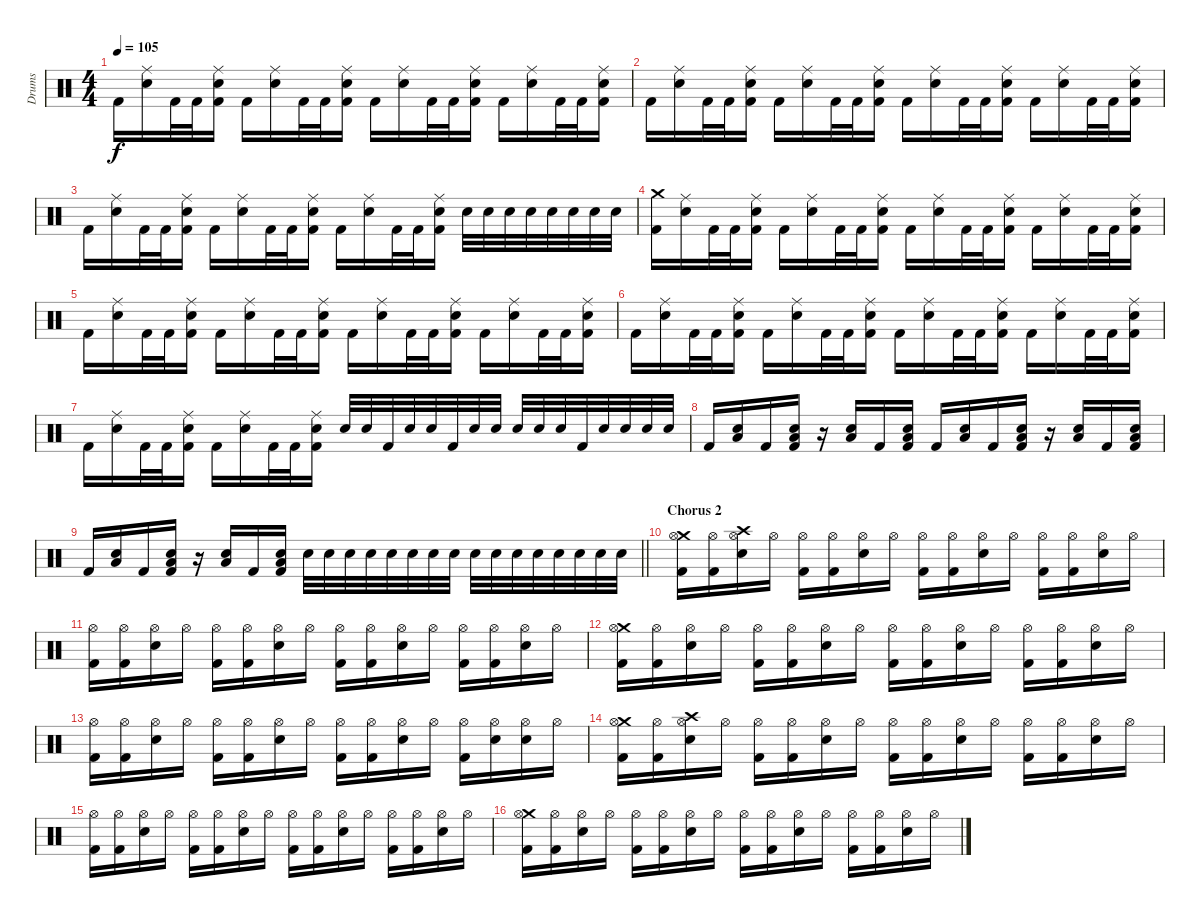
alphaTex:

\track ("Drums" "Drums") {instrument percussion}
\staff {score}
\articulation defaults
\ts (4 4)
\tempo 105
\clef neutral
\ks c "Kick (hit) 2".16{dy f}
("Ride (middle)" "Electric Snare (hit)").16 "Kick (hit) 2".32 "Kick (hit) 2".32 ("Ride (middle)" "Electric Snare (hit)" "Kick (hit) 2").16 "Kick (hit) 2".16 ("Ride (middle)" "Electric Snare (hit)").16 "Kick (hit) 2".32 "Kick (hit) 2".32 ("Ride (middle)" "Electric Snare (hit)" "Kick (hit) 2").16 "Kick (hit) 2".16 ("Ride (middle)" "Electric Snare (hit)").16 "Kick (hit) 2".32 "Kick (hit) 2".32 ("Ride (middle)" "Electric Snare (hit)" "Kick (hit) 2").16 "Kick (hit) 2".16 ("Ride (middle)" "Electric Snare (hit)").16 "Kick (hit) 2".32 "Kick (hit) 2".32 ("Ride (middle)" "Electric Snare (hit)" "Kick (hit) 2").16 |
"Kick (hit) 2".16 ("Ride (middle)" "Electric Snare (hit)").16 "Kick (hit) 2".32 "Kick (hit) 2".32 ("Ride (middle)" "Electric Snare (hit)" "Kick (hit) 2").16 "Kick (hit) 2".16 ("Ride (middle)" "Electric Snare (hit)").16 "Kick (hit) 2".32 "Kick (hit) 2".32 ("Ride (middle)" "Electric Snare (hit)" "Kick (hit) 2").16 "Kick (hit) 2".16 ("Ride (middle)" "Electric Snare (hit)").16 "Kick (hit) 2".32 "Kick (hit) 2".32 ("Ride (middle)" "Electric Snare (hit)" "Kick (hit) 2").16 "Kick (hit) 2".16 ("Ride (middle)" "Electric Snare (hit)").16 "Kick (hit) 2".32 "Kick (hit) 2".32 ("Ride (middle)" "Electric Snare (hit)" "Kick (hit) 2").16 |
"Kick (hit) 2".16 ("Ride (middle)" "Electric Snare (hit)").16 "Kick (hit) 2".32 "Kick (hit) 2".32 ("Ride (middle)" "Electric Snare (hit)" "Kick (hit) 2").16 "Kick (hit) 2".16 ("Ride (middle)" "Electric Snare (hit)").16 "Kick (hit) 2".32 "Kick (hit) 2".32 ("Ride (middle)" "Electric Snare (hit)" "Kick (hit) 2").16 "Kick (hit) 2".16 ("Ride (middle)" "Electric Snare (hit)").16 "Kick (hit) 2".32 "Kick (hit) 2".32 ("Ride (middle)" "Electric Snare (hit)" "Kick (hit) 2").16 "Electric Snare (hit)".32 "Electric Snare (hit)".32 "Electric Snare (hit)".32 "Electric Snare (hit)".32 "Electric Snare (hit)".32 "Electric Snare (hit)".32 "Electric Snare (hit)".32 "Electric Snare (hit)".32 |
("Crash medium (hit)" "Kick (hit) 2").16 ("Ride (middle)" "Electric Snare (hit)").16 "Kick (hit) 2".32 "Kick (hit) 2".32 ("Ride (middle)" "Electric Snare (hit)" "Kick (hit) 2").16 "Kick (hit) 2".16 ("Ride (middle)" "Electric Snare (hit)").16 "Kick (hit) 2".32 "Kick (hit) 2".32 ("Ride (middle)" "Electric Snare (hit)" "Kick (hit) 2").16 "Kick (hit) 2".16 ("Ride (middle)" "Electric Snare (hit)").16 "Kick (hit) 2".32 "Kick (hit) 2".32 ("Ride (middle)" "Electric Snare (hit)" "Kick (hit) 2").16 "Kick (hit) 2".16 ("Ride (middle)" "Electric Snare (hit)").16 "Kick (hit) 2".32 "Kick (hit) 2".32 ("Ride (middle)" "Electric Snare (hit)" "Kick (hit) 2").16 |
"Kick (hit) 2".16 ("Ride (middle)" "Electric Snare (hit)").16 "Kick (hit) 2".32 "Kick (hit) 2".32 ("Ride (middle)" "Electric Snare (hit)" "Kick (hit) 2").16 "Kick (hit) 2".16 ("Ride (middle)" "Electric Snare (hit)").16 "Kick (hit) 2".32 "Kick (hit) 2".32 ("Ride (middle)" "Electric Snare (hit)" "Kick (hit) 2").16 "Kick (hit) 2".16 ("Ride (middle)" "Electric Snare (hit)").16 "Kick (hit) 2".32 "Kick (hit) 2".32 ("Ride (middle)" "Electric Snare (hit)" "Kick (hit) 2").16 "Kick (hit) 2".16 ("Ride (middle)" "Electric Snare (hit)").16 "Kick (hit) 2".32 "Kick (hit) 2".32 ("Ride (middle)" "Electric Snare (hit)" "Kick (hit) 2").16 |
"Kick (hit) 2".16 ("Ride (middle)" "Electric Snare (hit)").16 "Kick (hit) 2".32 "Kick (hit) 2".32 ("Ride (middle)" "Electric Snare (hit)" "Kick (hit) 2").16 "Kick (hit) 2".16 ("Ride (middle)" "Electric Snare (hit)").16 "Kick (hit) 2".32 "Kick (hit) 2".32 ("Ride (middle)" "Electric Snare (hit)" "Kick (hit) 2").16 "Kick (hit) 2".16 ("Ride (middle)" "Electric Snare (hit)").16 "Kick (hit) 2".32 "Kick (hit) 2".32 ("Ride (middle)" "Electric Snare (hit)" "Kick (hit) 2").16 "Kick (hit) 2".16 ("Ride (middle)" "Electric Snare (hit)").16 "Kick (hit) 2".32 "Kick (hit) 2".32 ("Ride (middle)" "Electric Snare (hit)" "Kick (hit) 2").16 |
"Kick (hit) 2".16 ("Ride (middle)" "Electric Snare (hit)").16 "Kick (hit) 2".32 "Kick (hit) 2".32 ("Ride (middle)" "Electric Snare (hit)" "Kick (hit) 2").16 "Kick (hit) 2".16 ("Ride (middle)" "Electric Snare (hit)").16 "Kick (hit) 2".32 "Kick (hit) 2".32 ("Ride (middle)" "Electric Snare (hit)" "Kick (hit) 2").16 "Electric Snare (hit)".32 "Electric Snare (hit)".32 "Kick (hit) 2".32 "Electric Snare (hit)".32 "Electric Snare (hit)".32 "Kick (hit) 2".32 "Electric Snare (hit)".32 "Electric Snare (hit)".32 "Electric Snare (hit)".32 "Electric Snare (hit)".32 "Electric Snare (hit)".32 "Kick (hit) 2".32 "Electric Snare (hit)".32 "Electric Snare (hit)".32 "Electric Snare (hit)".32 "Electric Snare (hit)".32 |
"Kick (hit) 2".16 ("Low Tom (hit)" "Electric Snare (hit)").16 "Kick (hit) 2".16 ("Low Tom (hit)" "Electric Snare (hit)" "Kick (hit) 2").16 r.16 ("Low Tom (hit)" "Electric Snare (hit)").16 "Kick (hit) 2".16 ("Low Tom (hit)" "Electric Snare (hit)" "Kick (hit) 2").16 "Kick (hit) 2".16 ("Low Tom (hit)" "Electric Snare (hit)").16 "Kick (hit) 2".16 ("Low Tom (hit)" "Electric Snare (hit)" "Kick (hit) 2").16 r.16 ("Low Tom (hit)" "Electric Snare (hit)").16 "Kick (hit) 2".16 ("Low Tom (hit)" "Electric Snare (hit)" "Kick (hit) 2").16 |
\barLineRight lightlight "Kick (hit) 2".16
("Low Tom (hit)" "Electric Snare (hit)").16 "Kick (hit) 2".16 ("Low Tom (hit)" "Electric Snare (hit)" "Kick (hit) 2").16 r.16 ("Low Tom (hit)" "Electric Snare (hit)").16 "Kick (hit) 2".16 ("Low Tom (hit)" "Electric Snare (hit)" "Kick (hit) 2").16 "Electric Snare (hit)".32 "Electric Snare (hit)".32 "Electric Snare (hit)".32 "Electric Snare (hit)".32 "Electric Snare (hit)".32 "Electric Snare (hit)".32 "Electric Snare (hit)".32 "Electric Snare (hit)".32 "Electric Snare (hit)".32 "Electric Snare (hit)".32 "Electric Snare (hit)".32 "Electric Snare (hit)".32 "Electric Snare (hit)".32 "Electric Snare (hit)".32 "Electric Snare (hit)".32 "Electric Snare (hit)".32 |
\section ("" "Chorus 2")
("Crash medium (hit)" "Hi-Hat (open)" "Kick (hit) 2").16 ("Hi-Hat (open)" "Kick (hit) 2").16 ("Crash high (hit)" "Hi-Hat (open)" "Electric Snare (hit)").16 "Hi-Hat (open)".16 ("Hi-Hat (open)" "Kick (hit) 2").16 ("Hi-Hat (open)" "Kick (hit) 2").16 ("Hi-Hat (open)" "Electric Snare (hit)").16 "Hi-Hat (open)".16 ("Hi-Hat (open)" "Kick (hit) 2").16 ("Hi-Hat (open)" "Kick (hit) 2").16 ("Hi-Hat (open)" "Electric Snare (hit)").16 "Hi-Hat (open)".16 ("Hi-Hat (open)" "Kick (hit) 2").16 ("Hi-Hat (open)" "Kick (hit) 2").16 ("Hi-Hat (open)" "Electric Snare (hit)").16 "Hi-Hat (open)".16 |
("Hi-Hat (open)" "Kick (hit) 2").16 ("Hi-Hat (open)" "Kick (hit) 2").16 ("Hi-Hat (open)" "Electric Snare (hit)").16 "Hi-Hat (open)".16 ("Hi-Hat (open)" "Kick (hit) 2").16 ("Hi-Hat (open)" "Kick (hit) 2").16 ("Hi-Hat (open)" "Electric Snare (hit)").16 "Hi-Hat (open)".16 ("Hi-Hat (open)" "Kick (hit) 2").16 ("Hi-Hat (open)" "Kick (hit) 2").16 ("Hi-Hat (open)" "Electric Snare (hit)").16 "Hi-Hat (open)".16 ("Hi-Hat (open)" "Kick (hit) 2").16 ("Hi-Hat (open)" "Kick (hit) 2").16 ("Hi-Hat (open)" "Electric Snare (hit)").16 "Hi-Hat (open)".16 |
("Crash medium (hit)" "Hi-Hat (open)" "Kick (hit) 2").16 ("Hi-Hat (open)" "Kick (hit) 2").16 ("Hi-Hat (open)" "Electric Snare (hit)").16 "Hi-Hat (open)".16 ("Hi-Hat (open)" "Kick (hit) 2").16 ("Hi-Hat (open)" "Kick (hit) 2").16 ("Hi-Hat (open)" "Electric Snare (hit)").16 "Hi-Hat (open)".16 ("Hi-Hat (open)" "Kick (hit) 2").16 ("Hi-Hat (open)" "Kick (hit) 2").16 ("Hi-Hat (open)" "Electric Snare (hit)").16 "Hi-Hat (open)".16 ("Hi-Hat (open)" "Kick (hit) 2").16 ("Hi-Hat (open)" "Kick (hit) 2").16 ("Hi-Hat (open)" "Electric Snare (hit)").16 "Hi-Hat (open)".16 |
("Hi-Hat (open)" "Kick (hit) 2").16 ("Hi-Hat (open)" "Kick (hit) 2").16 ("Hi-Hat (open)" "Electric Snare (hit)").16 "Hi-Hat (open)".16 ("Hi-Hat (open)" "Kick (hit) 2").16 ("Hi-Hat (open)" "Kick (hit) 2").16 ("Hi-Hat (open)" "Electric Snare (hit)").16 "Hi-Hat (open)".16 ("Hi-Hat (open)" "Kick (hit) 2").16 ("Hi-Hat (open)" "Kick (hit) 2").16 ("Hi-Hat (open)" "Electric Snare (hit)").16 "Hi-Hat (open)".16 ("Hi-Hat (open)" "Kick (hit) 2").16 ("Hi-Hat (open)" "Electric Snare (hit)").16 ("Hi-Hat (open)" "Electric Snare (hit)").16 "Hi-Hat (open)".16 |
("Crash medium (hit)" "Hi-Hat (open)" "Kick (hit) 2").16 ("Hi-Hat (open)" "Kick (hit) 2").16 ("Crash high (hit)" "Hi-Hat (open)" "Electric Snare (hit)").16 "Hi-Hat (open)".16 ("Hi-Hat (open)" "Kick (hit) 2").16 ("Hi-Hat (open)" "Kick (hit) 2").16 ("Hi-Hat (open)" "Electric Snare (hit)").16 "Hi-Hat (open)".16 ("Hi-Hat (open)" "Kick (hit) 2").16 ("Hi-Hat (open)" "Kick (hit) 2").16 ("Hi-Hat (open)" "Electric Snare (hit)").16 "Hi-Hat (open)".16 ("Hi-Hat (open)" "Kick (hit) 2").16 ("Hi-Hat (open)" "Kick (hit) 2").16 ("Hi-Hat (open)" "Electric Snare (hit)").16 "Hi-Hat (open)".16 |
("Hi-Hat (open)" "Kick (hit) 2").16 ("Hi-Hat (open)" "Kick (hit) 2").16 ("Hi-Hat (open)" "Electric Snare (hit)").16 "Hi-Hat (open)".16 ("Hi-Hat (open)" "Kick (hit) 2").16 ("Hi-Hat (open)" "Kick (hit) 2").16 ("Hi-Hat (open)" "Electric Snare (hit)").16 "Hi-Hat (open)".16 ("Hi-Hat (open)" "Kick (hit) 2").16 ("Hi-Hat (open)" "Kick (hit) 2").16 ("Hi-Hat (open)" "Electric Snare (hit)").16 "Hi-Hat (open)".16 ("Hi-Hat (open)" "Kick (hit) 2").16 ("Hi-Hat (open)" "Kick (hit) 2").16 ("Hi-Hat (open)" "Electric Snare (hit)").16 "Hi-Hat (open)".16 |
("Crash medium (hit)" "Hi-Hat (open)" "Kick (hit) 2").16 ("Hi-Hat (open)" "Kick (hit) 2").16 ("Hi-Hat (open)" "Electric Snare (hit)").16 "Hi-Hat (open)".16 ("Hi-Hat (open)" "Kick (hit) 2").16 ("Hi-Hat (open)" "Kick (hit) 2").16 ("Hi-Hat (open)" "Electric Snare (hit)").16 "Hi-Hat (open)".16 ("Hi-Hat (open)" "Kick (hit) 2").16 ("Hi-Hat (open)" "Kick (hit) 2").16 ("Hi-Hat (open)" "Electric Snare (hit)").16 "Hi-Hat (open)".16 ("Hi-Hat (open)" "Kick (hit) 2").16 ("Hi-Hat (open)" "Kick (hit) 2").16 ("Hi-Hat (open)" "Electric Snare (hit)").16 "Hi-Hat (open)".16
